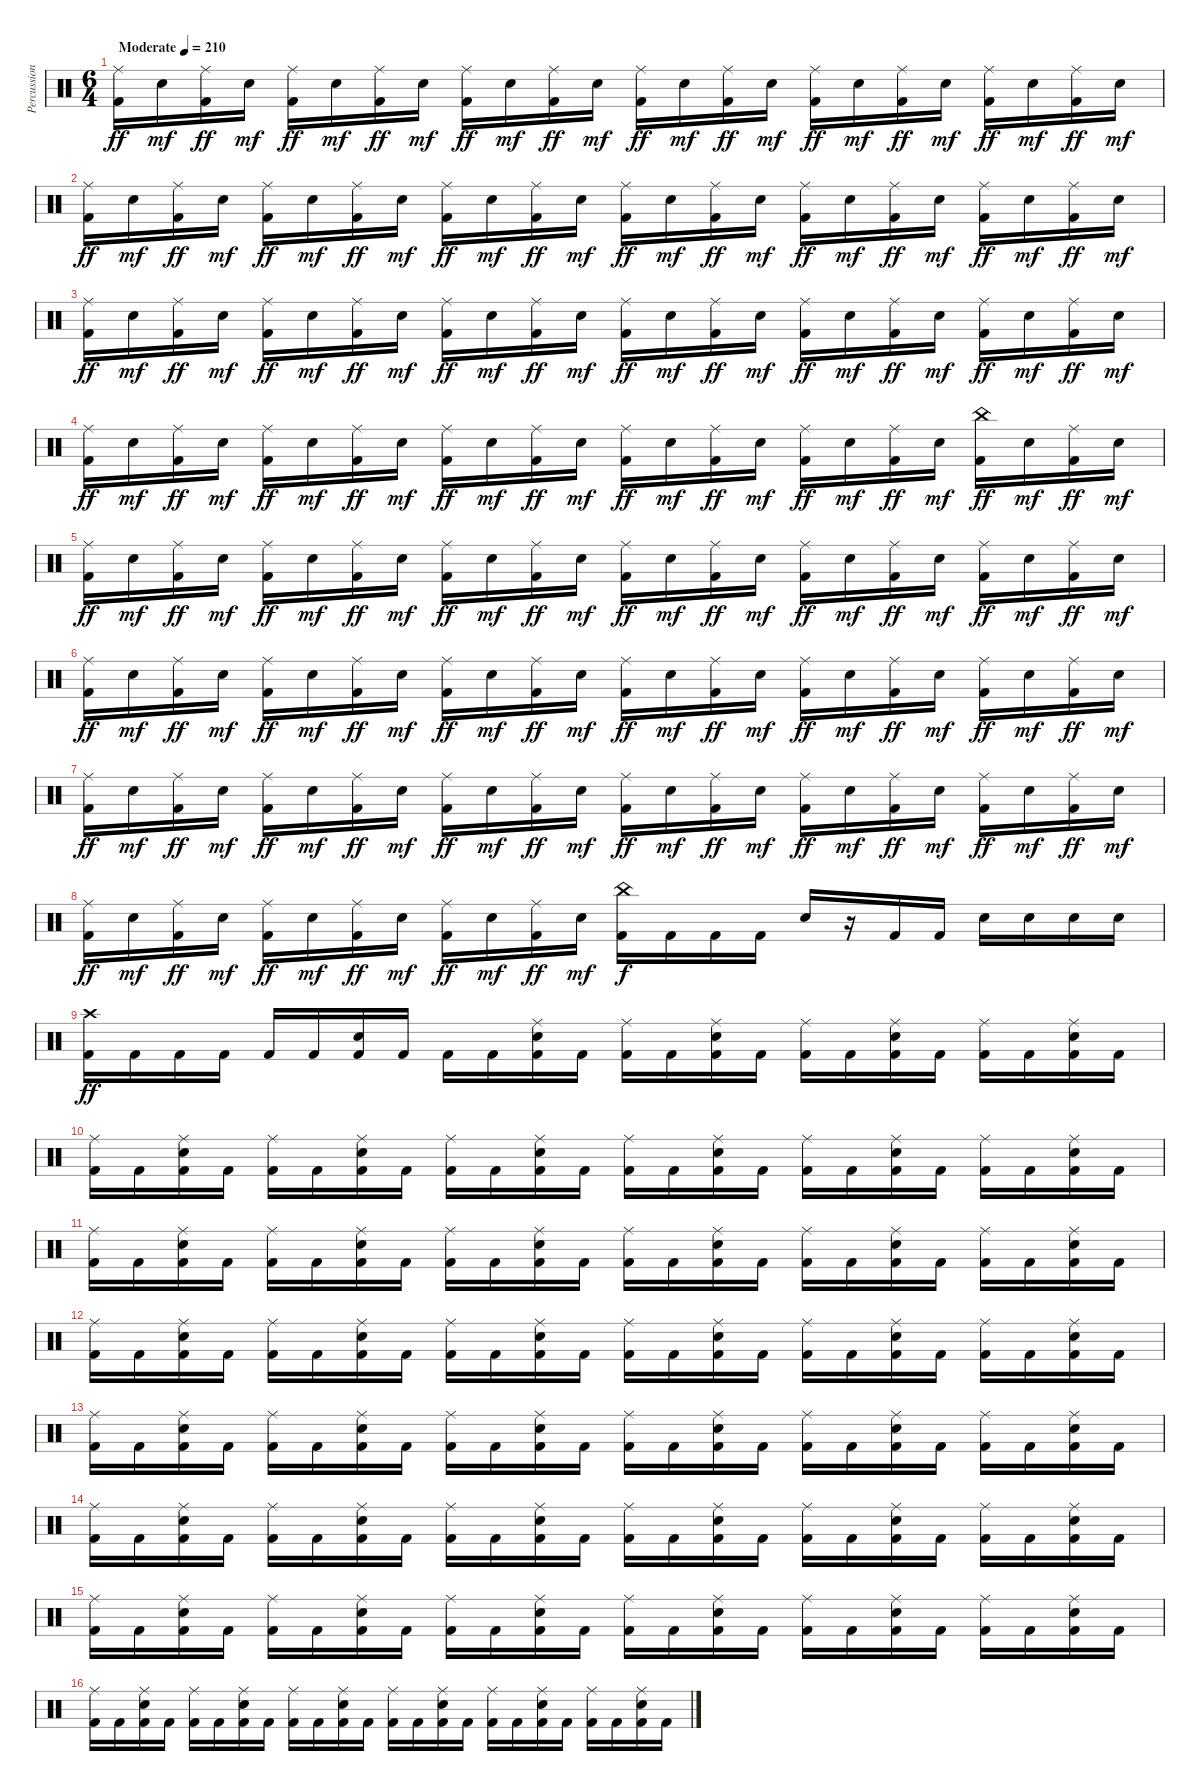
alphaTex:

\track ("Percussion" "Percussion") {instrument percussion}
\staff {score}
\articulation defaults
\ts (6 4)
\tempo (210 "Moderate")
\clef neutral
\ks c
("Ride (middle)" "Kick (hit) 2").16{dy ff} "Electric Snare (hit)".16{dy mf} ("Ride (middle)" "Kick (hit) 2").16{dy ff} "Electric Snare (hit)".16{dy mf} ("Ride (middle)" "Kick (hit) 2").16{dy ff} "Electric Snare (hit)".16{dy mf} ("Ride (middle)" "Kick (hit) 2").16{dy ff} "Electric Snare (hit)".16{dy mf} ("Ride (middle)" "Kick (hit) 2").16{dy ff} "Electric Snare (hit)".16{dy mf} ("Ride (middle)" "Kick (hit) 2").16{dy ff} "Electric Snare (hit)".16{dy mf} ("Ride (middle)" "Kick (hit) 2").16{dy ff} "Electric Snare (hit)".16{dy mf} ("Ride (middle)" "Kick (hit) 2").16{dy ff} "Electric Snare (hit)".16{dy mf} ("Ride (middle)" "Kick (hit) 2").16{dy ff} "Electric Snare (hit)".16{dy mf} ("Ride (middle)" "Kick (hit) 2").16{dy ff} "Electric Snare (hit)".16{dy mf} ("Ride (middle)" "Kick (hit) 2").16{dy ff} "Electric Snare (hit)".16{dy mf} ("Ride (middle)" "Kick (hit) 2").16{dy ff} "Electric Snare (hit)".16{dy mf} |
("Ride (middle)" "Kick (hit) 2").16{dy ff} "Electric Snare (hit)".16{dy mf} ("Ride (middle)" "Kick (hit) 2").16{dy ff} "Electric Snare (hit)".16{dy mf} ("Ride (middle)" "Kick (hit) 2").16{dy ff} "Electric Snare (hit)".16{dy mf} ("Ride (middle)" "Kick (hit) 2").16{dy ff} "Electric Snare (hit)".16{dy mf} ("Ride (middle)" "Kick (hit) 2").16{dy ff} "Electric Snare (hit)".16{dy mf} ("Ride (middle)" "Kick (hit) 2").16{dy ff} "Electric Snare (hit)".16{dy mf} ("Ride (middle)" "Kick (hit) 2").16{dy ff} "Electric Snare (hit)".16{dy mf} ("Ride (middle)" "Kick (hit) 2").16{dy ff} "Electric Snare (hit)".16{dy mf} ("Ride (middle)" "Kick (hit) 2").16{dy ff} "Electric Snare (hit)".16{dy mf} ("Ride (middle)" "Kick (hit) 2").16{dy ff} "Electric Snare (hit)".16{dy mf} ("Ride (middle)" "Kick (hit) 2").16{dy ff} "Electric Snare (hit)".16{dy mf} ("Ride (middle)" "Kick (hit) 2").16{dy ff} "Electric Snare (hit)".16{dy mf} |
("Ride (middle)" "Kick (hit) 2").16{dy ff} "Electric Snare (hit)".16{dy mf} ("Ride (middle)" "Kick (hit) 2").16{dy ff} "Electric Snare (hit)".16{dy mf} ("Ride (middle)" "Kick (hit) 2").16{dy ff} "Electric Snare (hit)".16{dy mf} ("Ride (middle)" "Kick (hit) 2").16{dy ff} "Electric Snare (hit)".16{dy mf} ("Ride (middle)" "Kick (hit) 2").16{dy ff} "Electric Snare (hit)".16{dy mf} ("Ride (middle)" "Kick (hit) 2").16{dy ff} "Electric Snare (hit)".16{dy mf} ("Ride (middle)" "Kick (hit) 2").16{dy ff} "Electric Snare (hit)".16{dy mf} ("Ride (middle)" "Kick (hit) 2").16{dy ff} "Electric Snare (hit)".16{dy mf} ("Ride (middle)" "Kick (hit) 2").16{dy ff} "Electric Snare (hit)".16{dy mf} ("Ride (middle)" "Kick (hit) 2").16{dy ff} "Electric Snare (hit)".16{dy mf} ("Ride (middle)" "Kick (hit) 2").16{dy ff} "Electric Snare (hit)".16{dy mf} ("Ride (middle)" "Kick (hit) 2").16{dy ff} "Electric Snare (hit)".16{dy mf} |
("Ride (middle)" "Kick (hit) 2").16{dy ff} "Electric Snare (hit)".16{dy mf} ("Ride (middle)" "Kick (hit) 2").16{dy ff} "Electric Snare (hit)".16{dy mf} ("Ride (middle)" "Kick (hit) 2").16{dy ff} "Electric Snare (hit)".16{dy mf} ("Ride (middle)" "Kick (hit) 2").16{dy ff} "Electric Snare (hit)".16{dy mf} ("Ride (middle)" "Kick (hit) 2").16{dy ff} "Electric Snare (hit)".16{dy mf} ("Ride (middle)" "Kick (hit) 2").16{dy ff} "Electric Snare (hit)".16{dy mf} ("Ride (middle)" "Kick (hit) 2").16{dy ff} "Electric Snare (hit)".16{dy mf} ("Ride (middle)" "Kick (hit) 2").16{dy ff} "Electric Snare (hit)".16{dy mf} ("Ride (middle)" "Kick (hit) 2").16{dy ff} "Electric Snare (hit)".16{dy mf} ("Ride (middle)" "Kick (hit) 2").16{dy ff} "Electric Snare (hit)".16{dy mf} ("China (hit)" "Kick (hit) 2").16{dy ff} "Electric Snare (hit)".16{dy mf} ("Ride (middle)" "Kick (hit) 2").16{dy ff} "Electric Snare (hit)".16{dy mf} |
("Ride (middle)" "Kick (hit) 2").16{dy ff} "Electric Snare (hit)".16{dy mf} ("Ride (middle)" "Kick (hit) 2").16{dy ff} "Electric Snare (hit)".16{dy mf} ("Ride (middle)" "Kick (hit) 2").16{dy ff} "Electric Snare (hit)".16{dy mf} ("Ride (middle)" "Kick (hit) 2").16{dy ff} "Electric Snare (hit)".16{dy mf} ("Ride (middle)" "Kick (hit) 2").16{dy ff} "Electric Snare (hit)".16{dy mf} ("Ride (middle)" "Kick (hit) 2").16{dy ff} "Electric Snare (hit)".16{dy mf} ("Ride (middle)" "Kick (hit) 2").16{dy ff} "Electric Snare (hit)".16{dy mf} ("Ride (middle)" "Kick (hit) 2").16{dy ff} "Electric Snare (hit)".16{dy mf} ("Ride (middle)" "Kick (hit) 2").16{dy ff} "Electric Snare (hit)".16{dy mf} ("Ride (middle)" "Kick (hit) 2").16{dy ff} "Electric Snare (hit)".16{dy mf} ("Ride (middle)" "Kick (hit) 2").16{dy ff} "Electric Snare (hit)".16{dy mf} ("Ride (middle)" "Kick (hit) 2").16{dy ff} "Electric Snare (hit)".16{dy mf} |
("Ride (middle)" "Kick (hit) 2").16{dy ff} "Electric Snare (hit)".16{dy mf} ("Ride (middle)" "Kick (hit) 2").16{dy ff} "Electric Snare (hit)".16{dy mf} ("Ride (middle)" "Kick (hit) 2").16{dy ff} "Electric Snare (hit)".16{dy mf} ("Ride (middle)" "Kick (hit) 2").16{dy ff} "Electric Snare (hit)".16{dy mf} ("Ride (middle)" "Kick (hit) 2").16{dy ff} "Electric Snare (hit)".16{dy mf} ("Ride (middle)" "Kick (hit) 2").16{dy ff} "Electric Snare (hit)".16{dy mf} ("Ride (middle)" "Kick (hit) 2").16{dy ff} "Electric Snare (hit)".16{dy mf} ("Ride (middle)" "Kick (hit) 2").16{dy ff} "Electric Snare (hit)".16{dy mf} ("Ride (middle)" "Kick (hit) 2").16{dy ff} "Electric Snare (hit)".16{dy mf} ("Ride (middle)" "Kick (hit) 2").16{dy ff} "Electric Snare (hit)".16{dy mf} ("Ride (middle)" "Kick (hit) 2").16{dy ff} "Electric Snare (hit)".16{dy mf} ("Ride (middle)" "Kick (hit) 2").16{dy ff} "Electric Snare (hit)".16{dy mf} |
("Ride (middle)" "Kick (hit) 2").16{dy ff} "Electric Snare (hit)".16{dy mf} ("Ride (middle)" "Kick (hit) 2").16{dy ff} "Electric Snare (hit)".16{dy mf} ("Ride (middle)" "Kick (hit) 2").16{dy ff} "Electric Snare (hit)".16{dy mf} ("Ride (middle)" "Kick (hit) 2").16{dy ff} "Electric Snare (hit)".16{dy mf} ("Ride (middle)" "Kick (hit) 2").16{dy ff} "Electric Snare (hit)".16{dy mf} ("Ride (middle)" "Kick (hit) 2").16{dy ff} "Electric Snare (hit)".16{dy mf} ("Ride (middle)" "Kick (hit) 2").16{dy ff} "Electric Snare (hit)".16{dy mf} ("Ride (middle)" "Kick (hit) 2").16{dy ff} "Electric Snare (hit)".16{dy mf} ("Ride (middle)" "Kick (hit) 2").16{dy ff} "Electric Snare (hit)".16{dy mf} ("Ride (middle)" "Kick (hit) 2").16{dy ff} "Electric Snare (hit)".16{dy mf} ("Ride (middle)" "Kick (hit) 2").16{dy ff} "Electric Snare (hit)".16{dy mf} ("Ride (middle)" "Kick (hit) 2").16{dy ff} "Electric Snare (hit)".16{dy mf} |
("Ride (middle)" "Kick (hit) 2").16{dy ff} "Electric Snare (hit)".16{dy mf} ("Ride (middle)" "Kick (hit) 2").16{dy ff} "Electric Snare (hit)".16{dy mf} ("Ride (middle)" "Kick (hit) 2").16{dy ff} "Electric Snare (hit)".16{dy mf} ("Ride (middle)" "Kick (hit) 2").16{dy ff} "Electric Snare (hit)".16{dy mf} ("Ride (middle)" "Kick (hit) 2").16{dy ff} "Electric Snare (hit)".16{dy mf} ("Ride (middle)" "Kick (hit) 2").16{dy ff} "Electric Snare (hit)".16{dy mf} ("China (hit)" "Kick (hit) 2").16{dy f} "Kick (hit) 2".16 "Kick (hit) 2".16 "Kick (hit) 2".16 "Electric Snare (hit)".16 r.16 "Kick (hit) 2".16 "Kick (hit) 2".16 "Electric Snare (hit)".16 "Electric Snare (hit)".16 "Electric Snare (hit)".16 "Electric Snare (hit)".16 |
("Crash high (hit)" "Kick (hit) 2").16{dy ff} "Kick (hit) 2".16 "Kick (hit) 2".16 "Kick (hit) 2".16 "Kick (hit) 2".16 "Kick (hit) 2".16 ("Electric Snare (hit)" "Kick (hit) 2").16 "Kick (hit) 2".16 "Kick (hit) 2".16 "Kick (hit) 2".16 ("Ride (middle)" "Electric Snare (hit)" "Kick (hit) 2").16 "Kick (hit) 2".16 ("Ride (middle)" "Kick (hit) 2").16 "Kick (hit) 2".16 ("Ride (middle)" "Electric Snare (hit)" "Kick (hit) 2").16 "Kick (hit) 2".16 ("Ride (middle)" "Kick (hit) 2").16 "Kick (hit) 2".16 ("Ride (middle)" "Electric Snare (hit)" "Kick (hit) 2").16 "Kick (hit) 2".16 ("Ride (middle)" "Kick (hit) 2").16 "Kick (hit) 2".16 ("Ride (middle)" "Electric Snare (hit)" "Kick (hit) 2").16 "Kick (hit) 2".16 |
("Ride (middle)" "Kick (hit) 2").16 "Kick (hit) 2".16 ("Ride (middle)" "Electric Snare (hit)" "Kick (hit) 2").16 "Kick (hit) 2".16 ("Ride (middle)" "Kick (hit) 2").16 "Kick (hit) 2".16 ("Ride (middle)" "Electric Snare (hit)" "Kick (hit) 2").16 "Kick (hit) 2".16 ("Ride (middle)" "Kick (hit) 2").16 "Kick (hit) 2".16 ("Ride (middle)" "Electric Snare (hit)" "Kick (hit) 2").16 "Kick (hit) 2".16 ("Ride (middle)" "Kick (hit) 2").16 "Kick (hit) 2".16 ("Ride (middle)" "Electric Snare (hit)" "Kick (hit) 2").16 "Kick (hit) 2".16 ("Ride (middle)" "Kick (hit) 2").16 "Kick (hit) 2".16 ("Ride (middle)" "Electric Snare (hit)" "Kick (hit) 2").16 "Kick (hit) 2".16 ("Ride (middle)" "Kick (hit) 2").16 "Kick (hit) 2".16 ("Ride (middle)" "Electric Snare (hit)" "Kick (hit) 2").16 "Kick (hit) 2".16 |
("Ride (middle)" "Kick (hit) 2").16 "Kick (hit) 2".16 ("Ride (middle)" "Electric Snare (hit)" "Kick (hit) 2").16 "Kick (hit) 2".16 ("Ride (middle)" "Kick (hit) 2").16 "Kick (hit) 2".16 ("Ride (middle)" "Electric Snare (hit)" "Kick (hit) 2").16 "Kick (hit) 2".16 ("Ride (middle)" "Kick (hit) 2").16 "Kick (hit) 2".16 ("Ride (middle)" "Electric Snare (hit)" "Kick (hit) 2").16 "Kick (hit) 2".16 ("Ride (middle)" "Kick (hit) 2").16 "Kick (hit) 2".16 ("Ride (middle)" "Electric Snare (hit)" "Kick (hit) 2").16 "Kick (hit) 2".16 ("Ride (middle)" "Kick (hit) 2").16 "Kick (hit) 2".16 ("Ride (middle)" "Electric Snare (hit)" "Kick (hit) 2").16 "Kick (hit) 2".16 ("Ride (middle)" "Kick (hit) 2").16 "Kick (hit) 2".16 ("Ride (middle)" "Electric Snare (hit)" "Kick (hit) 2").16 "Kick (hit) 2".16 |
("Ride (middle)" "Kick (hit) 2").16 "Kick (hit) 2".16 ("Ride (middle)" "Electric Snare (hit)" "Kick (hit) 2").16 "Kick (hit) 2".16 ("Ride (middle)" "Kick (hit) 2").16 "Kick (hit) 2".16 ("Ride (middle)" "Electric Snare (hit)" "Kick (hit) 2").16 "Kick (hit) 2".16 ("Ride (middle)" "Kick (hit) 2").16 "Kick (hit) 2".16 ("Ride (middle)" "Electric Snare (hit)" "Kick (hit) 2").16 "Kick (hit) 2".16 ("Ride (middle)" "Kick (hit) 2").16 "Kick (hit) 2".16 ("Ride (middle)" "Electric Snare (hit)" "Kick (hit) 2").16 "Kick (hit) 2".16 ("Ride (middle)" "Kick (hit) 2").16 "Kick (hit) 2".16 ("Ride (middle)" "Electric Snare (hit)" "Kick (hit) 2").16 "Kick (hit) 2".16 ("Ride (middle)" "Kick (hit) 2").16 "Kick (hit) 2".16 ("Ride (middle)" "Electric Snare (hit)" "Kick (hit) 2").16 "Kick (hit) 2".16 |
("Ride (middle)" "Kick (hit) 2").16 "Kick (hit) 2".16 ("Ride (middle)" "Electric Snare (hit)" "Kick (hit) 2").16 "Kick (hit) 2".16 ("Ride (middle)" "Kick (hit) 2").16 "Kick (hit) 2".16 ("Ride (middle)" "Electric Snare (hit)" "Kick (hit) 2").16 "Kick (hit) 2".16 ("Ride (middle)" "Kick (hit) 2").16 "Kick (hit) 2".16 ("Ride (middle)" "Electric Snare (hit)" "Kick (hit) 2").16 "Kick (hit) 2".16 ("Ride (middle)" "Kick (hit) 2").16 "Kick (hit) 2".16 ("Ride (middle)" "Electric Snare (hit)" "Kick (hit) 2").16 "Kick (hit) 2".16 ("Ride (middle)" "Kick (hit) 2").16 "Kick (hit) 2".16 ("Ride (middle)" "Electric Snare (hit)" "Kick (hit) 2").16 "Kick (hit) 2".16 ("Ride (middle)" "Kick (hit) 2").16 "Kick (hit) 2".16 ("Ride (middle)" "Electric Snare (hit)" "Kick (hit) 2").16 "Kick (hit) 2".16 |
("Ride (middle)" "Kick (hit) 2").16 "Kick (hit) 2".16 ("Ride (middle)" "Electric Snare (hit)" "Kick (hit) 2").16 "Kick (hit) 2".16 ("Ride (middle)" "Kick (hit) 2").16 "Kick (hit) 2".16 ("Ride (middle)" "Electric Snare (hit)" "Kick (hit) 2").16 "Kick (hit) 2".16 ("Ride (middle)" "Kick (hit) 2").16 "Kick (hit) 2".16 ("Ride (middle)" "Electric Snare (hit)" "Kick (hit) 2").16 "Kick (hit) 2".16 ("Ride (middle)" "Kick (hit) 2").16 "Kick (hit) 2".16 ("Ride (middle)" "Electric Snare (hit)" "Kick (hit) 2").16 "Kick (hit) 2".16 ("Ride (middle)" "Kick (hit) 2").16 "Kick (hit) 2".16 ("Ride (middle)" "Electric Snare (hit)" "Kick (hit) 2").16 "Kick (hit) 2".16 ("Ride (middle)" "Kick (hit) 2").16 "Kick (hit) 2".16 ("Ride (middle)" "Electric Snare (hit)" "Kick (hit) 2").16 "Kick (hit) 2".16 |
("Ride (middle)" "Kick (hit) 2").16 "Kick (hit) 2".16 ("Ride (middle)" "Electric Snare (hit)" "Kick (hit) 2").16 "Kick (hit) 2".16 ("Ride (middle)" "Kick (hit) 2").16 "Kick (hit) 2".16 ("Ride (middle)" "Electric Snare (hit)" "Kick (hit) 2").16 "Kick (hit) 2".16 ("Ride (middle)" "Kick (hit) 2").16 "Kick (hit) 2".16 ("Ride (middle)" "Electric Snare (hit)" "Kick (hit) 2").16 "Kick (hit) 2".16 ("Ride (middle)" "Kick (hit) 2").16 "Kick (hit) 2".16 ("Ride (middle)" "Electric Snare (hit)" "Kick (hit) 2").16 "Kick (hit) 2".16 ("Ride (middle)" "Kick (hit) 2").16 "Kick (hit) 2".16 ("Ride (middle)" "Electric Snare (hit)" "Kick (hit) 2").16 "Kick (hit) 2".16 ("Ride (middle)" "Kick (hit) 2").16 "Kick (hit) 2".16 ("Ride (middle)" "Electric Snare (hit)" "Kick (hit) 2").16 "Kick (hit) 2".16 |
("Ride (middle)" "Kick (hit) 2").16 "Kick (hit) 2".16 ("Ride (middle)" "Electric Snare (hit)" "Kick (hit) 2").16 "Kick (hit) 2".16 ("Ride (middle)" "Kick (hit) 2").16 "Kick (hit) 2".16 ("Ride (middle)" "Electric Snare (hit)" "Kick (hit) 2").16 "Kick (hit) 2".16 ("Ride (middle)" "Kick (hit) 2").16 "Kick (hit) 2".16 ("Ride (middle)" "Electric Snare (hit)" "Kick (hit) 2").16 "Kick (hit) 2".16 ("Ride (middle)" "Kick (hit) 2").16 "Kick (hit) 2".16 ("Ride (middle)" "Electric Snare (hit)" "Kick (hit) 2").16 "Kick (hit) 2".16 ("Ride (middle)" "Kick (hit) 2").16 "Kick (hit) 2".16 ("Ride (middle)" "Electric Snare (hit)" "Kick (hit) 2").16 "Kick (hit) 2".16 ("Ride (middle)" "Kick (hit) 2").16 "Kick (hit) 2".16 ("Ride (middle)" "Electric Snare (hit)" "Kick (hit) 2").16 "Kick (hit) 2".16
